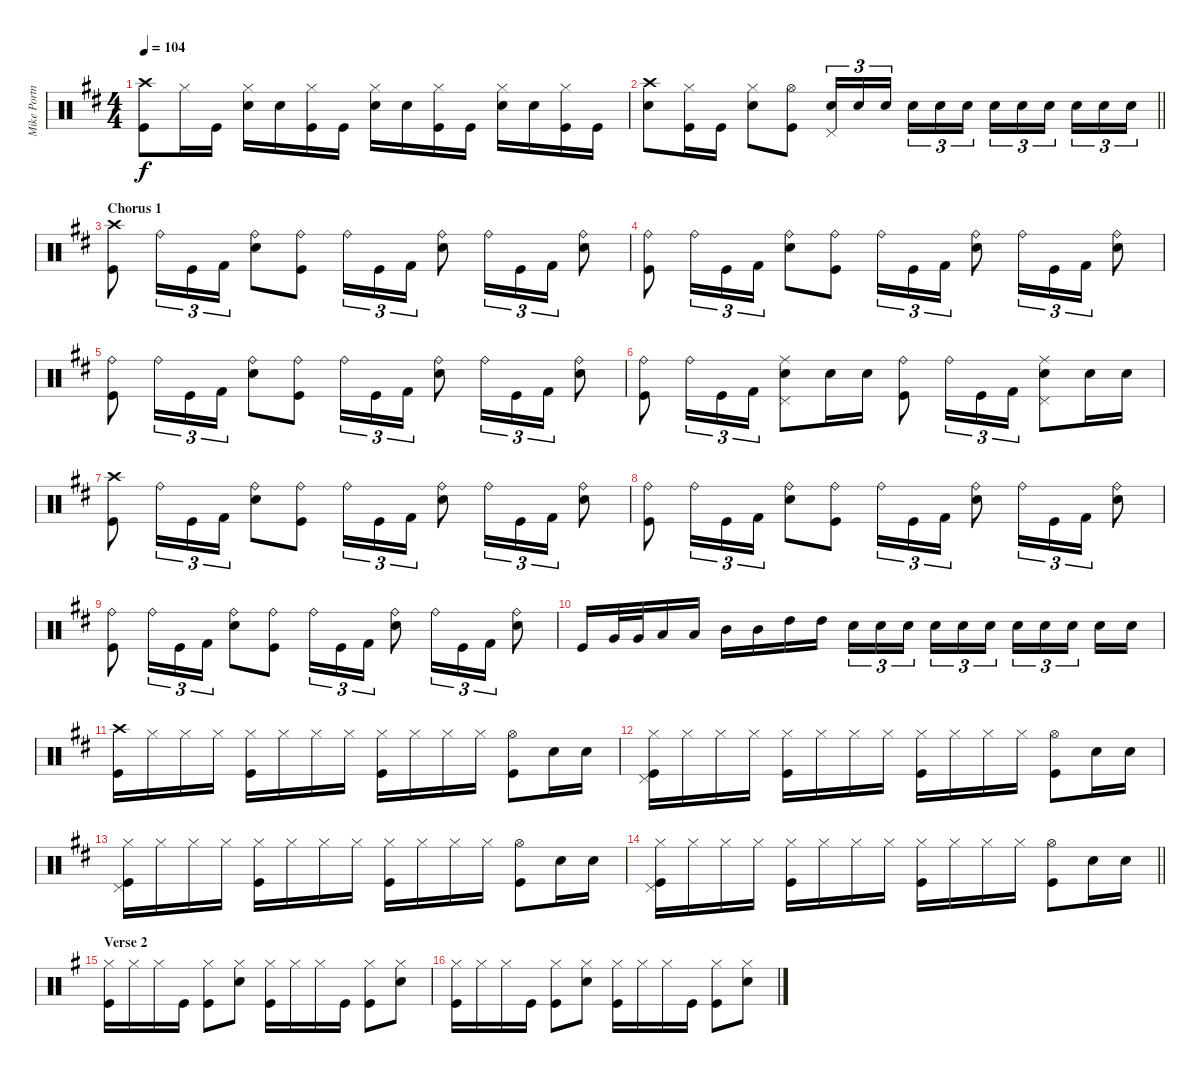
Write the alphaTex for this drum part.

\track ("Mike Portnoy" "Mike Portn") {instrument percussion}
\staff {score}
\articulation defaults
\ts (4 4)
\tempo 104
\clef neutral
\ks bminor
("Crash high (hit)" "Kick (hit)").8{dy f} "Hi-Hat (closed)".16 "Kick (hit)".16 ("Snare (hit) 2" "Hi-Hat (closed)").16 "Snare (hit) 2".16 ("Kick (hit)" "Hi-Hat (closed)").16 "Kick (hit)".16 ("Snare (hit) 2" "Hi-Hat (closed)").16 "Snare (hit) 2".16 ("Kick (hit)" "Hi-Hat (closed)").16 "Kick (hit)".16 ("Snare (hit) 2" "Hi-Hat (closed)").16 "Snare (hit) 2".16 ("Kick (hit)" "Hi-Hat (closed)").16 "Kick (hit)".16 |
\barLineRight lightlight
("Crash high (hit)" "Snare (hit) 2").8 ("Hi-Hat (closed)" "Kick (hit)").16 "Kick (hit)".16 ("Snare (hit) 2" "Hi-Hat (closed)").8 ("Hi-Hat (open)" "Kick (hit)").8 ("Snare (hit) 2" "Pedal Hi-Hat (hit)").16{tu (3 2)} "Snare (hit) 2".16{tu (3 2)} "Snare (hit) 2".16{tu (3 2) beam splitsecondary} "Snare (hit) 2".16{tu (3 2)} "Snare (hit) 2".16{tu (3 2)} "Snare (hit) 2".16{tu (3 2)} "Snare (hit) 2".16{tu (3 2)} "Snare (hit) 2".16{tu (3 2)} "Snare (hit) 2".16{tu (3 2) beam splitsecondary} "Snare (hit) 2".16{tu (3 2)} "Snare (hit) 2".16{tu (3 2)} "Snare (hit) 2".16{tu (3 2)} |
\section ("" "Chorus 1")
("Kick (hit)" "Crash high (hit)").8 "Ride (bell)".16{tu (3 2)} "Kick (hit)".16{tu (3 2)} "Kick (hit) 2".16{tu (3 2)} ("Snare (hit) 2" "Ride (bell)").8 ("Kick (hit)" "Ride (bell)").8 "Ride (bell)".16{tu (3 2)} "Kick (hit)".16{tu (3 2)} "Kick (hit) 2".16{tu (3 2)} ("Snare (hit) 2" "Ride (bell)").8 "Ride (bell)".16{tu (3 2)} "Kick (hit)".16{tu (3 2)} "Kick (hit) 2".16{tu (3 2)} ("Snare (hit) 2" "Ride (bell)").8 |
("Kick (hit)" "Ride (bell)").8 "Ride (bell)".16{tu (3 2)} "Kick (hit)".16{tu (3 2)} "Kick (hit) 2".16{tu (3 2)} ("Snare (hit) 2" "Ride (bell)").8 ("Kick (hit)" "Ride (bell)").8 "Ride (bell)".16{tu (3 2)} "Kick (hit)".16{tu (3 2)} "Kick (hit) 2".16{tu (3 2)} ("Snare (hit) 2" "Ride (bell)").8 "Ride (bell)".16{tu (3 2)} "Kick (hit)".16{tu (3 2)} "Kick (hit) 2".16{tu (3 2)} ("Snare (hit) 2" "Ride (bell)").8 |
("Kick (hit)" "Ride (bell)").8 "Ride (bell)".16{tu (3 2)} "Kick (hit)".16{tu (3 2)} "Kick (hit) 2".16{tu (3 2)} ("Snare (hit) 2" "Ride (bell)").8 ("Kick (hit)" "Ride (bell)").8 "Ride (bell)".16{tu (3 2)} "Kick (hit)".16{tu (3 2)} "Kick (hit) 2".16{tu (3 2)} ("Snare (hit) 2" "Ride (bell)").8 "Ride (bell)".16{tu (3 2)} "Kick (hit)".16{tu (3 2)} "Kick (hit) 2".16{tu (3 2)} ("Snare (hit) 2" "Ride (bell)").8 |
("Kick (hit)" "Ride (bell)").8 "Ride (bell)".16{tu (3 2)} "Kick (hit)".16{tu (3 2)} "Kick (hit) 2".16{tu (3 2)} ("Pedal Hi-Hat (hit)" "Ride (middle)" "Snare (hit) 2").8 "Snare (hit) 2".16 "Snare (hit) 2".16 ("Kick (hit)" "Ride (bell)").8 "Ride (bell)".16{tu (3 2)} "Kick (hit)".16{tu (3 2)} "Kick (hit) 2".16{tu (3 2)} ("Pedal Hi-Hat (hit)" "Ride (middle)" "Snare (hit) 2").8 "Snare (hit) 2".16 "Snare (hit) 2".16 |
("Kick (hit)" "Crash high (hit)").8 "Ride (bell)".16{tu (3 2)} "Kick (hit)".16{tu (3 2)} "Kick (hit) 2".16{tu (3 2)} ("Snare (hit) 2" "Ride (bell)").8 ("Kick (hit)" "Ride (bell)").8 "Ride (bell)".16{tu (3 2)} "Kick (hit)".16{tu (3 2)} "Kick (hit) 2".16{tu (3 2)} ("Snare (hit) 2" "Ride (bell)").8 "Ride (bell)".16{tu (3 2)} "Kick (hit)".16{tu (3 2)} "Kick (hit) 2".16{tu (3 2)} ("Snare (hit) 2" "Ride (bell)").8 |
("Kick (hit)" "Ride (bell)").8 "Ride (bell)".16{tu (3 2)} "Kick (hit)".16{tu (3 2)} "Kick (hit) 2".16{tu (3 2)} ("Snare (hit) 2" "Ride (bell)").8 ("Kick (hit)" "Ride (bell)").8 "Ride (bell)".16{tu (3 2)} "Kick (hit)".16{tu (3 2)} "Kick (hit) 2".16{tu (3 2)} ("Snare (hit) 2" "Ride (bell)").8 "Ride (bell)".16{tu (3 2)} "Kick (hit)".16{tu (3 2)} "Kick (hit) 2".16{tu (3 2)} ("Snare (hit) 2" "Ride (bell)").8 |
("Kick (hit)" "Ride (bell)").8 "Ride (bell)".16{tu (3 2)} "Kick (hit)".16{tu (3 2)} "Kick (hit) 2".16{tu (3 2)} ("Snare (hit) 2" "Ride (bell)").8 ("Kick (hit)" "Ride (bell)").8 "Ride (bell)".16{tu (3 2)} "Kick (hit)".16{tu (3 2)} "Kick (hit) 2".16{tu (3 2)} ("Snare (hit) 2" "Ride (bell)").8 "Ride (bell)".16{tu (3 2)} "Kick (hit)".16{tu (3 2)} "Kick (hit) 2".16{tu (3 2)} ("Snare (hit) 2" "Ride (bell)").8 |
"Kick (hit)".16 "Very Low Tom (hit)".32 "Very Low Tom (hit)".32 "Low Tom (hit)".16 "Low Tom (hit)".16 "Mid Tom (hit)".16 "Mid Tom (hit)".16 "High Tom (hit)".16 "High Tom (hit)".16 "Snare (hit) 2".16{tu (3 2)} "Snare (hit) 2".16{tu (3 2)} "Snare (hit) 2".16{tu (3 2) beam splitsecondary} "Snare (hit) 2".16{tu (3 2)} "Snare (hit) 2".16{tu (3 2)} "Snare (hit) 2".16{tu (3 2)} "Snare (hit) 2".16{tu (3 2)} "Snare (hit) 2".16{tu (3 2)} "Snare (hit) 2".16{tu (3 2) beam splitsecondary} "Snare (hit) 2".16 "Snare (hit) 2".16 |
("Kick (hit)" "Crash high (hit)").16 "Hi-Hat (closed)".16 "Hi-Hat (closed)".16 "Hi-Hat (closed)".16 ("Kick (hit)" "Hi-Hat (closed)").16 "Hi-Hat (closed)".16 "Hi-Hat (closed)".16 "Hi-Hat (closed)".16 ("Kick (hit)" "Hi-Hat (closed)").16 "Hi-Hat (closed)".16 "Hi-Hat (closed)".16 "Hi-Hat (closed)".16 ("Hi-Hat (open)" "Kick (hit)").8 "Snare (hit) 2".16 "Snare (hit) 2".16 |
("Kick (hit)" "Pedal Hi-Hat (hit)" "Hi-Hat (closed)").16 "Hi-Hat (closed)".16 "Hi-Hat (closed)".16 "Hi-Hat (closed)".16 ("Kick (hit)" "Hi-Hat (closed)").16 "Hi-Hat (closed)".16 "Hi-Hat (closed)".16 "Hi-Hat (closed)".16 ("Kick (hit)" "Hi-Hat (closed)").16 "Hi-Hat (closed)".16 "Hi-Hat (closed)".16 "Hi-Hat (closed)".16 ("Hi-Hat (open)" "Kick (hit)").8 "Snare (hit) 2".16 "Snare (hit) 2".16 |
("Kick (hit)" "Pedal Hi-Hat (hit)" "Hi-Hat (closed)").16 "Hi-Hat (closed)".16 "Hi-Hat (closed)".16 "Hi-Hat (closed)".16 ("Kick (hit)" "Hi-Hat (closed)").16 "Hi-Hat (closed)".16 "Hi-Hat (closed)".16 "Hi-Hat (closed)".16 ("Kick (hit)" "Hi-Hat (closed)").16 "Hi-Hat (closed)".16 "Hi-Hat (closed)".16 "Hi-Hat (closed)".16 ("Hi-Hat (open)" "Kick (hit)").8 "Snare (hit) 2".16 "Snare (hit) 2".16 |
\barLineRight lightlight
("Kick (hit)" "Pedal Hi-Hat (hit)" "Hi-Hat (closed)").16 "Hi-Hat (closed)".16 "Hi-Hat (closed)".16 "Hi-Hat (closed)".16 ("Kick (hit)" "Hi-Hat (closed)").16 "Hi-Hat (closed)".16 "Hi-Hat (closed)".16 "Hi-Hat (closed)".16 ("Kick (hit)" "Hi-Hat (closed)").16 "Hi-Hat (closed)".16 "Hi-Hat (closed)".16 "Hi-Hat (closed)".16 ("Hi-Hat (open)" "Kick (hit)").8 "Snare (hit) 2".16 "Snare (hit) 2".16 |
\section ("" "Verse 2")
\ks eminor
("Kick (hit)" "Hi-Hat (closed)").16 "Hi-Hat (closed)".16 "Hi-Hat (closed)".16 "Kick (hit)".16 ("Kick (hit)" "Hi-Hat (closed)").8 ("Electric Snare (hit)" "Hi-Hat (closed)").8 ("Kick (hit)" "Hi-Hat (closed)").16 "Hi-Hat (closed)".16 "Hi-Hat (closed)".16 "Kick (hit)".16 ("Kick (hit)" "Hi-Hat (closed)").8 ("Electric Snare (hit)" "Hi-Hat (closed)").8 |
("Kick (hit)" "Hi-Hat (closed)").16 "Hi-Hat (closed)".16 "Hi-Hat (closed)".16 "Kick (hit)".16 ("Kick (hit)" "Hi-Hat (closed)").8 ("Electric Snare (hit)" "Hi-Hat (closed)").8 ("Kick (hit)" "Hi-Hat (closed)").16 "Hi-Hat (closed)".16 "Hi-Hat (closed)".16 "Kick (hit)".16 ("Kick (hit)" "Hi-Hat (closed)").8 ("Electric Snare (hit)" "Hi-Hat (closed)").8
